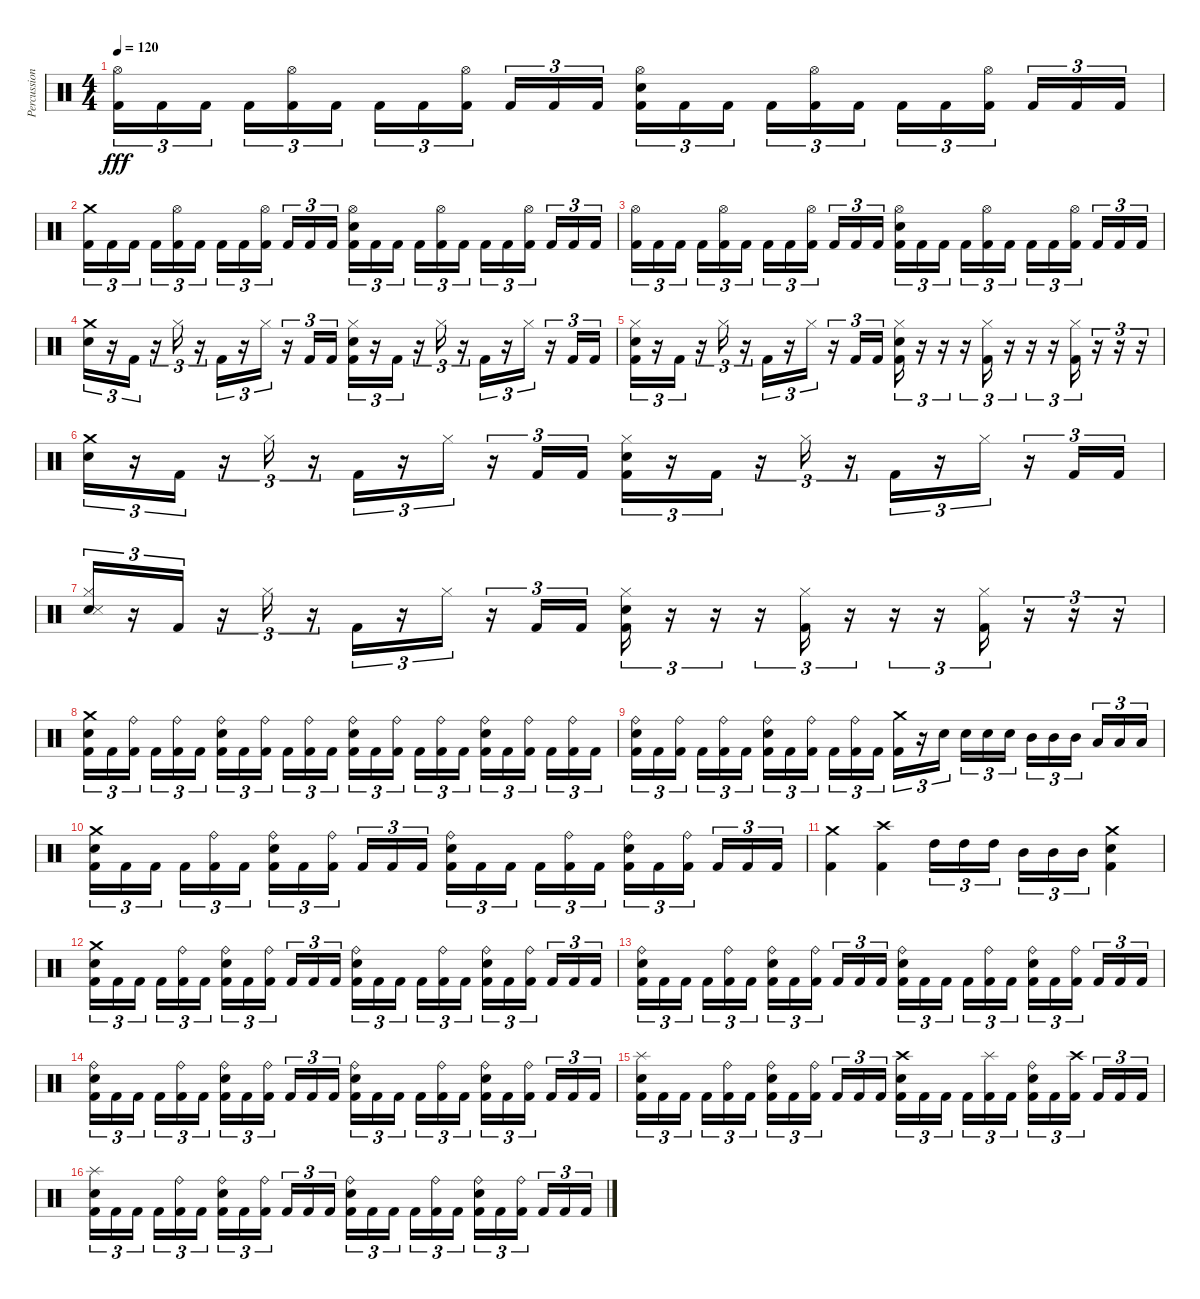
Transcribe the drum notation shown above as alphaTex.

\track ("Percussions" "Percussion") {instrument percussion}
\staff {score}
\articulation defaults
\ts (4 4)
\tempo 120
\clef neutral
\ks c
("Hi-Hat (open)" "Kick (hit) 2").16{tu (3 2) dy fff} "Kick (hit) 2".16{tu (3 2)} "Kick (hit) 2".16{tu (3 2) beam splitsecondary} "Kick (hit) 2".16{tu (3 2)} ("Hi-Hat (open)" "Kick (hit) 2").16{tu (3 2)} "Kick (hit) 2".16{tu (3 2)} "Kick (hit) 2".16{tu (3 2)} "Kick (hit) 2".16{tu (3 2)} ("Hi-Hat (open)" "Kick (hit) 2").16{tu (3 2) beam splitsecondary} "Kick (hit) 2".16{tu (3 2)} "Kick (hit) 2".16{tu (3 2)} "Kick (hit) 2".16{tu (3 2)} ("Hi-Hat (open)" "Snare (hit) 2" "Kick (hit) 2").16{tu (3 2)} "Kick (hit) 2".16{tu (3 2)} "Kick (hit) 2".16{tu (3 2) beam splitsecondary} "Kick (hit) 2".16{tu (3 2)} ("Hi-Hat (open)" "Kick (hit) 2").16{tu (3 2)} "Kick (hit) 2".16{tu (3 2)} "Kick (hit) 2".16{tu (3 2)} "Kick (hit) 2".16{tu (3 2)} ("Hi-Hat (open)" "Kick (hit) 2").16{tu (3 2) beam splitsecondary} "Kick (hit) 2".16{tu (3 2)} "Kick (hit) 2".16{tu (3 2)} "Kick (hit) 2".16{tu (3 2)} |
("Crash medium (hit)" "Kick (hit) 2").16{tu (3 2)} "Kick (hit) 2".16{tu (3 2)} "Kick (hit) 2".16{tu (3 2) beam splitsecondary} "Kick (hit) 2".16{tu (3 2)} ("Hi-Hat (open)" "Kick (hit) 2").16{tu (3 2)} "Kick (hit) 2".16{tu (3 2)} "Kick (hit) 2".16{tu (3 2)} "Kick (hit) 2".16{tu (3 2)} ("Hi-Hat (open)" "Kick (hit) 2").16{tu (3 2) beam splitsecondary} "Kick (hit) 2".16{tu (3 2)} "Kick (hit) 2".16{tu (3 2)} "Kick (hit) 2".16{tu (3 2)} ("Hi-Hat (open)" "Snare (hit) 2" "Kick (hit) 2").16{tu (3 2)} "Kick (hit) 2".16{tu (3 2)} "Kick (hit) 2".16{tu (3 2) beam splitsecondary} "Kick (hit) 2".16{tu (3 2)} ("Hi-Hat (open)" "Kick (hit) 2").16{tu (3 2)} "Kick (hit) 2".16{tu (3 2)} "Kick (hit) 2".16{tu (3 2)} "Kick (hit) 2".16{tu (3 2)} ("Hi-Hat (open)" "Kick (hit) 2").16{tu (3 2) beam splitsecondary} "Kick (hit) 2".16{tu (3 2)} "Kick (hit) 2".16{tu (3 2)} "Kick (hit) 2".16{tu (3 2)} |
("Hi-Hat (open)" "Kick (hit) 2").16{tu (3 2)} "Kick (hit) 2".16{tu (3 2)} "Kick (hit) 2".16{tu (3 2) beam splitsecondary} "Kick (hit) 2".16{tu (3 2)} ("Hi-Hat (open)" "Kick (hit) 2").16{tu (3 2)} "Kick (hit) 2".16{tu (3 2)} "Kick (hit) 2".16{tu (3 2)} "Kick (hit) 2".16{tu (3 2)} ("Hi-Hat (open)" "Kick (hit) 2").16{tu (3 2) beam splitsecondary} "Kick (hit) 2".16{tu (3 2)} "Kick (hit) 2".16{tu (3 2)} "Kick (hit) 2".16{tu (3 2)} ("Hi-Hat (open)" "Snare (hit) 2" "Kick (hit) 2").16{tu (3 2)} "Kick (hit) 2".16{tu (3 2)} "Kick (hit) 2".16{tu (3 2) beam splitsecondary} "Kick (hit) 2".16{tu (3 2)} ("Hi-Hat (open)" "Kick (hit) 2").16{tu (3 2)} "Kick (hit) 2".16{tu (3 2)} "Kick (hit) 2".16{tu (3 2)} "Kick (hit) 2".16{tu (3 2)} ("Hi-Hat (open)" "Kick (hit) 2").16{tu (3 2) beam splitsecondary} "Kick (hit) 2".16{tu (3 2)} "Kick (hit) 2".16{tu (3 2)} "Kick (hit) 2".16{tu (3 2)} |
("Crash medium (hit)" "Snare (hit) 2").16{tu (3 2)} r.16{tu (3 2)} "Kick (hit) 2".16{tu (3 2)} r.16{tu (3 2)} "Hi-Hat (closed)".16{tu (3 2)} r.16{tu (3 2)} "Kick (hit) 2".16{tu (3 2)} r.16{tu (3 2)} "Hi-Hat (closed)".16{tu (3 2)} r.16{tu (3 2)} "Kick (hit) 2".16{tu (3 2)} "Kick (hit) 2".16{tu (3 2)} ("Hi-Hat (closed)" "Snare (hit) 2" "Kick (hit) 2").16{tu (3 2)} r.16{tu (3 2)} "Kick (hit) 2".16{tu (3 2)} r.16{tu (3 2)} "Hi-Hat (closed)".16{tu (3 2)} r.16{tu (3 2)} "Kick (hit) 2".16{tu (3 2)} r.16{tu (3 2)} "Hi-Hat (closed)".16{tu (3 2)} r.16{tu (3 2)} "Kick (hit) 2".16{tu (3 2)} "Kick (hit) 2".16{tu (3 2)} |
("Hi-Hat (closed)" "Snare (hit) 2" "Kick (hit) 2").16{tu (3 2)} r.16{tu (3 2)} "Kick (hit) 2".16{tu (3 2)} r.16{tu (3 2)} "Hi-Hat (closed)".16{tu (3 2)} r.16{tu (3 2)} "Kick (hit) 2".16{tu (3 2)} r.16{tu (3 2)} "Hi-Hat (closed)".16{tu (3 2)} r.16{tu (3 2)} "Kick (hit) 2".16{tu (3 2)} "Kick (hit) 2".16{tu (3 2)} ("Hi-Hat (closed)" "Snare (hit) 2" "Kick (hit) 2").16{tu (3 2)} r.16{tu (3 2)} r.16{tu (3 2)} r.16{tu (3 2)} ("Hi-Hat (closed)" "Kick (hit) 2").16{tu (3 2)} r.16{tu (3 2)} r.16{tu (3 2)} r.16{tu (3 2)} ("Hi-Hat (closed)" "Kick (hit) 2").16{tu (3 2)} r.16{tu (3 2)} r.16{tu (3 2)} r.16{tu (3 2)} |
("Crash medium (hit)" "Snare (hit) 2").16{tu (3 2)} r.16{tu (3 2)} "Kick (hit) 2".16{tu (3 2)} r.16{tu (3 2)} "Hi-Hat (closed)".16{tu (3 2)} r.16{tu (3 2)} "Kick (hit) 2".16{tu (3 2)} r.16{tu (3 2)} "Hi-Hat (closed)".16{tu (3 2)} r.16{tu (3 2)} "Kick (hit) 2".16{tu (3 2)} "Kick (hit) 2".16{tu (3 2)} ("Hi-Hat (closed)" "Snare (hit) 2" "Kick (hit) 2").16{tu (3 2)} r.16{tu (3 2)} "Kick (hit) 2".16{tu (3 2)} r.16{tu (3 2)} "Hi-Hat (closed)".16{tu (3 2)} r.16{tu (3 2)} "Kick (hit) 2".16{tu (3 2)} r.16{tu (3 2)} "Hi-Hat (closed)".16{tu (3 2)} r.16{tu (3 2)} "Kick (hit) 2".16{tu (3 2)} "Kick (hit) 2".16{tu (3 2)} |
("Hi-Hat (closed)" "Snare (hit) 2" "Snare (side stick) 3").16{tu (3 2)} r.16{tu (3 2)} "Kick (hit) 2".16{tu (3 2)} r.16{tu (3 2)} "Hi-Hat (closed)".16{tu (3 2)} r.16{tu (3 2)} "Kick (hit) 2".16{tu (3 2)} r.16{tu (3 2)} "Hi-Hat (closed)".16{tu (3 2)} r.16{tu (3 2)} "Kick (hit) 2".16{tu (3 2)} "Kick (hit) 2".16{tu (3 2)} ("Hi-Hat (closed)" "Snare (hit) 2" "Kick (hit) 2").16{tu (3 2)} r.16{tu (3 2)} r.16{tu (3 2)} r.16{tu (3 2)} ("Hi-Hat (closed)" "Kick (hit) 2").16{tu (3 2)} r.16{tu (3 2)} r.16{tu (3 2)} r.16{tu (3 2)} ("Hi-Hat (closed)" "Kick (hit) 2").16{tu (3 2)} r.16{tu (3 2)} r.16{tu (3 2)} r.16{tu (3 2)} |
("Crash medium (hit)" "Snare (hit) 2" "Kick (hit) 2").16{tu (3 2)} "Kick (hit) 2".16{tu (3 2)} ("Ride (bell)" "Kick (hit) 2").16{tu (3 2) beam splitsecondary} "Kick (hit) 2".16{tu (3 2)} ("Ride (bell)" "Kick (hit) 2").16{tu (3 2)} "Kick (hit) 2".16{tu (3 2)} ("Ride (bell)" "Snare (hit) 2" "Kick (hit) 2").16{tu (3 2)} "Kick (hit) 2".16{tu (3 2)} ("Ride (bell)" "Kick (hit) 2").16{tu (3 2) beam splitsecondary} "Kick (hit) 2".16{tu (3 2)} ("Ride (bell)" "Kick (hit) 2").16{tu (3 2)} "Kick (hit) 2".16{tu (3 2)} ("Ride (bell)" "Snare (hit) 2" "Kick (hit) 2").16{tu (3 2)} "Kick (hit) 2".16{tu (3 2)} ("Ride (bell)" "Kick (hit) 2").16{tu (3 2) beam splitsecondary} "Kick (hit) 2".16{tu (3 2)} ("Ride (bell)" "Kick (hit) 2").16{tu (3 2)} "Kick (hit) 2".16{tu (3 2)} ("Ride (bell)" "Snare (hit) 2" "Kick (hit) 2").16{tu (3 2)} "Kick (hit) 2".16{tu (3 2)} ("Ride (bell)" "Kick (hit) 2").16{tu (3 2) beam splitsecondary} "Kick (hit) 2".16{tu (3 2)} ("Ride (bell)" "Kick (hit) 2").16{tu (3 2)} "Kick (hit) 2".16{tu (3 2)} |
("Ride (bell)" "Snare (hit) 2" "Kick (hit) 2").16{tu (3 2)} "Kick (hit) 2".16{tu (3 2)} ("Ride (bell)" "Kick (hit) 2").16{tu (3 2) beam splitsecondary} "Kick (hit) 2".16{tu (3 2)} ("Ride (bell)" "Kick (hit) 2").16{tu (3 2)} "Kick (hit) 2".16{tu (3 2)} ("Ride (bell)" "Snare (hit) 2" "Kick (hit) 2").16{tu (3 2)} "Kick (hit) 2".16{tu (3 2)} ("Ride (bell)" "Kick (hit) 2").16{tu (3 2) beam splitsecondary} "Kick (hit) 2".16{tu (3 2)} ("Ride (bell)" "Kick (hit) 2").16{tu (3 2)} "Kick (hit) 2".16{tu (3 2)} ("Crash medium (hit)" "Kick (hit) 2").16{tu (3 2)} r.16{tu (3 2)} "Snare (hit) 2".16{tu (3 2) beam splitsecondary} "Snare (hit) 2".16{tu (3 2)} "Snare (hit) 2".16{tu (3 2)} "Snare (hit) 2".16{tu (3 2)} "Mid Tom (hit)".16{tu (3 2)} "Mid Tom (hit)".16{tu (3 2)} "Mid Tom (hit)".16{tu (3 2) beam splitsecondary} "Low Tom (hit)".16{tu (3 2)} "Low Tom (hit)".16{tu (3 2)} "Low Tom (hit)".16{tu (3 2)} |
("Crash medium (hit)" "Snare (hit) 2" "Kick (hit) 2").16{tu (3 2)} "Kick (hit) 2".16{tu (3 2)} "Kick (hit) 2".16{tu (3 2) beam splitsecondary} "Kick (hit) 2".16{tu (3 2)} ("Ride (bell)" "Kick (hit) 2").16{tu (3 2)} "Kick (hit) 2".16{tu (3 2)} ("Ride (bell)" "Snare (hit) 2" "Kick (hit) 2").16{tu (3 2)} "Kick (hit) 2".16{tu (3 2)} ("Ride (bell)" "Kick (hit) 2").16{tu (3 2) beam splitsecondary} "Kick (hit) 2".16{tu (3 2)} "Kick (hit) 2".16{tu (3 2)} "Kick (hit) 2".16{tu (3 2)} ("Ride (bell)" "Snare (hit) 2" "Kick (hit) 2").16{tu (3 2)} "Kick (hit) 2".16{tu (3 2)} "Kick (hit) 2".16{tu (3 2) beam splitsecondary} "Kick (hit) 2".16{tu (3 2)} ("Ride (bell)" "Kick (hit) 2").16{tu (3 2)} "Kick (hit) 2".16{tu (3 2)} ("Ride (bell)" "Snare (hit) 2" "Kick (hit) 2").16{tu (3 2)} "Kick (hit) 2".16{tu (3 2)} ("Ride (bell)" "Kick (hit) 2").16{tu (3 2) beam splitsecondary} "Kick (hit) 2".16{tu (3 2)} "Kick (hit) 2".16{tu (3 2)} "Kick (hit) 2".16{tu (3 2)} |
("Crash medium (hit)" "Kick (hit) 2").4 ("Crash high (hit)" "Kick (hit) 2").4 "High Tom (hit)".16{tu (3 2)} "High Tom (hit)".16{tu (3 2)} "High Tom (hit)".16{tu (3 2) beam splitsecondary} "Mid Tom (hit)".16{tu (3 2)} "Mid Tom (hit)".16{tu (3 2)} "Mid Tom (hit)".16{tu (3 2)} ("Crash medium (hit)" "Snare (hit) 2" "Kick (hit) 2").4 |
("Crash medium (hit)" "Snare (hit) 2" "Kick (hit) 2").16{tu (3 2)} "Kick (hit) 2".16{tu (3 2)} "Kick (hit) 2".16{tu (3 2) beam splitsecondary} "Kick (hit) 2".16{tu (3 2)} ("Ride (bell)" "Kick (hit) 2").16{tu (3 2)} "Kick (hit) 2".16{tu (3 2)} ("Ride (bell)" "Snare (hit) 2" "Kick (hit) 2").16{tu (3 2)} "Kick (hit) 2".16{tu (3 2)} ("Ride (bell)" "Kick (hit) 2").16{tu (3 2) beam splitsecondary} "Kick (hit) 2".16{tu (3 2)} "Kick (hit) 2".16{tu (3 2)} "Kick (hit) 2".16{tu (3 2)} ("Ride (bell)" "Snare (hit) 2" "Kick (hit) 2").16{tu (3 2)} "Kick (hit) 2".16{tu (3 2)} "Kick (hit) 2".16{tu (3 2) beam splitsecondary} "Kick (hit) 2".16{tu (3 2)} ("Ride (bell)" "Kick (hit) 2").16{tu (3 2)} "Kick (hit) 2".16{tu (3 2)} ("Ride (bell)" "Snare (hit) 2" "Kick (hit) 2").16{tu (3 2)} "Kick (hit) 2".16{tu (3 2)} ("Ride (bell)" "Kick (hit) 2").16{tu (3 2) beam splitsecondary} "Kick (hit) 2".16{tu (3 2)} "Kick (hit) 2".16{tu (3 2)} "Kick (hit) 2".16{tu (3 2)} |
("Ride (bell)" "Snare (hit) 2" "Kick (hit) 2").16{tu (3 2)} "Kick (hit) 2".16{tu (3 2)} "Kick (hit) 2".16{tu (3 2) beam splitsecondary} "Kick (hit) 2".16{tu (3 2)} ("Ride (bell)" "Kick (hit) 2").16{tu (3 2)} "Kick (hit) 2".16{tu (3 2)} ("Ride (bell)" "Snare (hit) 2" "Kick (hit) 2").16{tu (3 2)} "Kick (hit) 2".16{tu (3 2)} ("Ride (bell)" "Kick (hit) 2").16{tu (3 2) beam splitsecondary} "Kick (hit) 2".16{tu (3 2)} "Kick (hit) 2".16{tu (3 2)} "Kick (hit) 2".16{tu (3 2)} ("Ride (bell)" "Snare (hit) 2" "Kick (hit) 2").16{tu (3 2)} "Kick (hit) 2".16{tu (3 2)} "Kick (hit) 2".16{tu (3 2) beam splitsecondary} "Kick (hit) 2".16{tu (3 2)} ("Ride (bell)" "Kick (hit) 2").16{tu (3 2)} "Kick (hit) 2".16{tu (3 2)} ("Ride (bell)" "Snare (hit) 2" "Kick (hit) 2").16{tu (3 2)} "Kick (hit) 2".16{tu (3 2)} ("Ride (bell)" "Kick (hit) 2").16{tu (3 2) beam splitsecondary} "Kick (hit) 2".16{tu (3 2)} "Kick (hit) 2".16{tu (3 2)} "Kick (hit) 2".16{tu (3 2)} |
("Ride (bell)" "Snare (hit) 2" "Kick (hit) 2").16{tu (3 2)} "Kick (hit) 2".16{tu (3 2)} "Kick (hit) 2".16{tu (3 2) beam splitsecondary} "Kick (hit) 2".16{tu (3 2)} ("Ride (bell)" "Kick (hit) 2").16{tu (3 2)} "Kick (hit) 2".16{tu (3 2)} ("Ride (bell)" "Snare (hit) 2" "Kick (hit) 2").16{tu (3 2)} "Kick (hit) 2".16{tu (3 2)} ("Ride (bell)" "Kick (hit) 2").16{tu (3 2) beam splitsecondary} "Kick (hit) 2".16{tu (3 2)} "Kick (hit) 2".16{tu (3 2)} "Kick (hit) 2".16{tu (3 2)} ("Ride (bell)" "Snare (hit) 2" "Kick (hit) 2").16{tu (3 2)} "Kick (hit) 2".16{tu (3 2)} "Kick (hit) 2".16{tu (3 2) beam splitsecondary} "Kick (hit) 2".16{tu (3 2)} ("Ride (bell)" "Kick (hit) 2").16{tu (3 2)} "Kick (hit) 2".16{tu (3 2)} ("Ride (bell)" "Snare (hit) 2" "Kick (hit) 2").16{tu (3 2)} "Kick (hit) 2".16{tu (3 2)} ("Ride (bell)" "Kick (hit) 2").16{tu (3 2) beam splitsecondary} "Kick (hit) 2".16{tu (3 2)} "Kick (hit) 2".16{tu (3 2)} "Kick (hit) 2".16{tu (3 2)} |
("Splash (hit)" "Snare (hit) 2" "Kick (hit) 2").16{tu (3 2)} "Kick (hit) 2".16{tu (3 2)} "Kick (hit) 2".16{tu (3 2) beam splitsecondary} "Kick (hit) 2".16{tu (3 2)} ("Ride (bell)" "Kick (hit) 2").16{tu (3 2)} "Kick (hit) 2".16{tu (3 2)} ("Ride (bell)" "Snare (hit) 2" "Kick (hit) 2").16{tu (3 2)} "Kick (hit) 2".16{tu (3 2)} ("Ride (bell)" "Kick (hit) 2").16{tu (3 2) beam splitsecondary} "Kick (hit) 2".16{tu (3 2)} "Kick (hit) 2".16{tu (3 2)} "Kick (hit) 2".16{tu (3 2)} ("Crash high (hit)" "Snare (hit) 2" "Kick (hit) 2").16{tu (3 2)} "Kick (hit) 2".16{tu (3 2)} "Kick (hit) 2".16{tu (3 2) beam splitsecondary} "Kick (hit) 2".16{tu (3 2)} ("Splash (hit)" "Kick (hit) 2").16{tu (3 2)} "Kick (hit) 2".16{tu (3 2)} ("Ride (bell)" "Snare (hit) 2" "Kick (hit) 2").16{tu (3 2)} "Kick (hit) 2".16{tu (3 2)} ("Crash high (hit)" "Kick (hit) 2").16{tu (3 2) beam splitsecondary} "Kick (hit) 2".16{tu (3 2)} "Kick (hit) 2".16{tu (3 2)} "Kick (hit) 2".16{tu (3 2)} |
("Splash (hit)" "Snare (hit) 2" "Kick (hit) 2").16{tu (3 2)} "Kick (hit) 2".16{tu (3 2)} "Kick (hit) 2".16{tu (3 2) beam splitsecondary} "Kick (hit) 2".16{tu (3 2)} ("Ride (bell)" "Kick (hit) 2").16{tu (3 2)} "Kick (hit) 2".16{tu (3 2)} ("Ride (bell)" "Snare (hit) 2" "Kick (hit) 2").16{tu (3 2)} "Kick (hit) 2".16{tu (3 2)} ("Ride (bell)" "Kick (hit) 2").16{tu (3 2) beam splitsecondary} "Kick (hit) 2".16{tu (3 2)} "Kick (hit) 2".16{tu (3 2)} "Kick (hit) 2".16{tu (3 2)} ("Ride (bell)" "Snare (hit) 2" "Kick (hit) 2").16{tu (3 2)} "Kick (hit) 2".16{tu (3 2)} "Kick (hit) 2".16{tu (3 2) beam splitsecondary} "Kick (hit) 2".16{tu (3 2)} ("Ride (bell)" "Kick (hit) 2").16{tu (3 2)} "Kick (hit) 2".16{tu (3 2)} ("Ride (bell)" "Snare (hit) 2" "Kick (hit) 2").16{tu (3 2)} "Kick (hit) 2".16{tu (3 2)} ("Ride (bell)" "Kick (hit) 2").16{tu (3 2) beam splitsecondary} "Kick (hit) 2".16{tu (3 2)} "Kick (hit) 2".16{tu (3 2)} "Kick (hit) 2".16{tu (3 2)}
